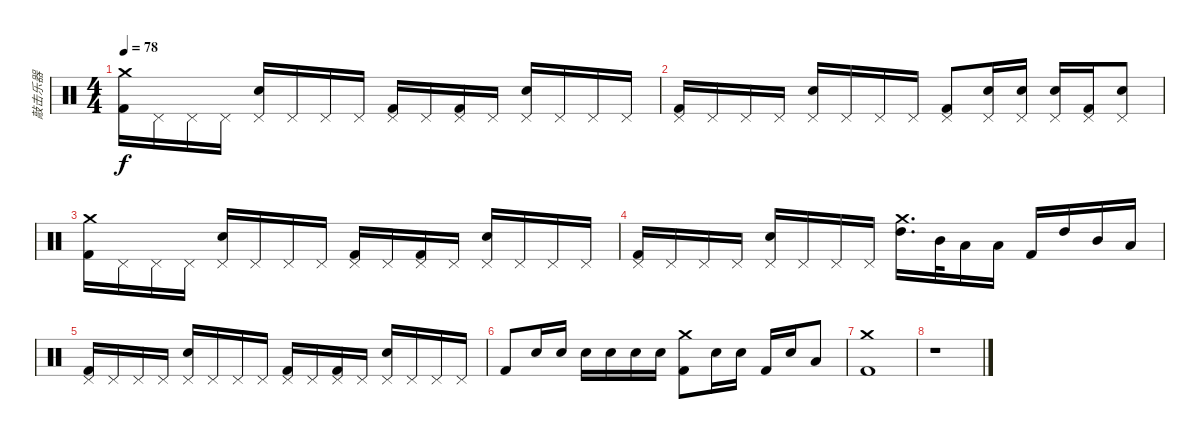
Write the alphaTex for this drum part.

\track ("敲击乐器" "敲击乐器") {instrument percussion}
\staff {score}
\articulation defaults
\ts (4 4)
\tempo 78
\clef neutral
\ks c
("Crash medium (hit)" "Kick (hit) 2").16{dy f} "Pedal Hi-Hat (hit)".16 "Pedal Hi-Hat (hit)".16 "Pedal Hi-Hat (hit)".16 ("Pedal Hi-Hat (hit)" "Snare (hit) 2").16 "Pedal Hi-Hat (hit)".16 "Pedal Hi-Hat (hit)".16 "Pedal Hi-Hat (hit)".16 ("Pedal Hi-Hat (hit)" "Kick (hit) 2").16 "Pedal Hi-Hat (hit)".16 ("Pedal Hi-Hat (hit)" "Kick (hit) 2").16 "Pedal Hi-Hat (hit)".16 ("Pedal Hi-Hat (hit)" "Snare (hit) 2").16 "Pedal Hi-Hat (hit)".16 "Pedal Hi-Hat (hit)".16 "Pedal Hi-Hat (hit)".16 |
("Pedal Hi-Hat (hit)" "Kick (hit) 2").16 "Pedal Hi-Hat (hit)".16 "Pedal Hi-Hat (hit)".16 "Pedal Hi-Hat (hit)".16 ("Pedal Hi-Hat (hit)" "Snare (hit) 2").16 "Pedal Hi-Hat (hit)".16 "Pedal Hi-Hat (hit)".16 "Pedal Hi-Hat (hit)".16 ("Pedal Hi-Hat (hit)" "Kick (hit) 2").8 ("Pedal Hi-Hat (hit)" "Snare (hit) 2").16 ("Pedal Hi-Hat (hit)" "Snare (hit) 2").16 ("Pedal Hi-Hat (hit)" "Snare (hit) 2").16 ("Pedal Hi-Hat (hit)" "Kick (hit) 2").16 ("Pedal Hi-Hat (hit)" "Snare (hit) 2").8 |
("Crash medium (hit)" "Kick (hit) 2").16 "Pedal Hi-Hat (hit)".16 "Pedal Hi-Hat (hit)".16 "Pedal Hi-Hat (hit)".16 ("Pedal Hi-Hat (hit)" "Snare (hit) 2").16 "Pedal Hi-Hat (hit)".16 "Pedal Hi-Hat (hit)".16 "Pedal Hi-Hat (hit)".16 ("Pedal Hi-Hat (hit)" "Kick (hit) 2").16 "Pedal Hi-Hat (hit)".16 ("Pedal Hi-Hat (hit)" "Kick (hit) 2").16 "Pedal Hi-Hat (hit)".16 ("Pedal Hi-Hat (hit)" "Snare (hit) 2").16 "Pedal Hi-Hat (hit)".16 "Pedal Hi-Hat (hit)".16 "Pedal Hi-Hat (hit)".16 |
("Pedal Hi-Hat (hit)" "Kick (hit) 2").16 "Pedal Hi-Hat (hit)".16 "Pedal Hi-Hat (hit)".16 "Pedal Hi-Hat (hit)".16 ("Pedal Hi-Hat (hit)" "Snare (hit) 2").16 "Pedal Hi-Hat (hit)".16 "Pedal Hi-Hat (hit)".16 "Pedal Hi-Hat (hit)".16 ("Crash medium (hit)" "High Tom (hit)").16{d} "Mid Tom (hit)".32 "Low Tom (hit)".16 "Low Tom (hit)".16 "Kick (hit) 2".16 "High Tom (hit)".16 "Mid Tom (hit)".16 "Low Tom (hit)".16 |
("Pedal Hi-Hat (hit)" "Kick (hit) 2").16 "Pedal Hi-Hat (hit)".16 "Pedal Hi-Hat (hit)".16 "Pedal Hi-Hat (hit)".16 ("Pedal Hi-Hat (hit)" "Snare (hit) 2").16 "Pedal Hi-Hat (hit)".16 "Pedal Hi-Hat (hit)".16 "Pedal Hi-Hat (hit)".16 ("Pedal Hi-Hat (hit)" "Kick (hit) 2").16 "Pedal Hi-Hat (hit)".16 ("Pedal Hi-Hat (hit)" "Kick (hit) 2").16 "Pedal Hi-Hat (hit)".16 ("Pedal Hi-Hat (hit)" "Snare (hit) 2").16 "Pedal Hi-Hat (hit)".16 "Pedal Hi-Hat (hit)".16 "Pedal Hi-Hat (hit)".16 |
"Kick (hit) 2".8 "Snare (hit) 2".16 "Snare (hit) 2".16 "Snare (hit) 2".16 "Snare (hit) 2".16 "Snare (hit) 2".16 "Snare (hit) 2".16 ("Crash medium (hit)" "Kick (hit) 2").8 "Snare (hit) 2".16 "Snare (hit) 2".16 "Kick (hit) 2".16 "Snare (hit) 2".16 "Low Tom (hit)".8 |
("Crash medium (hit)" "Kick (hit) 2").1 |
r.1
